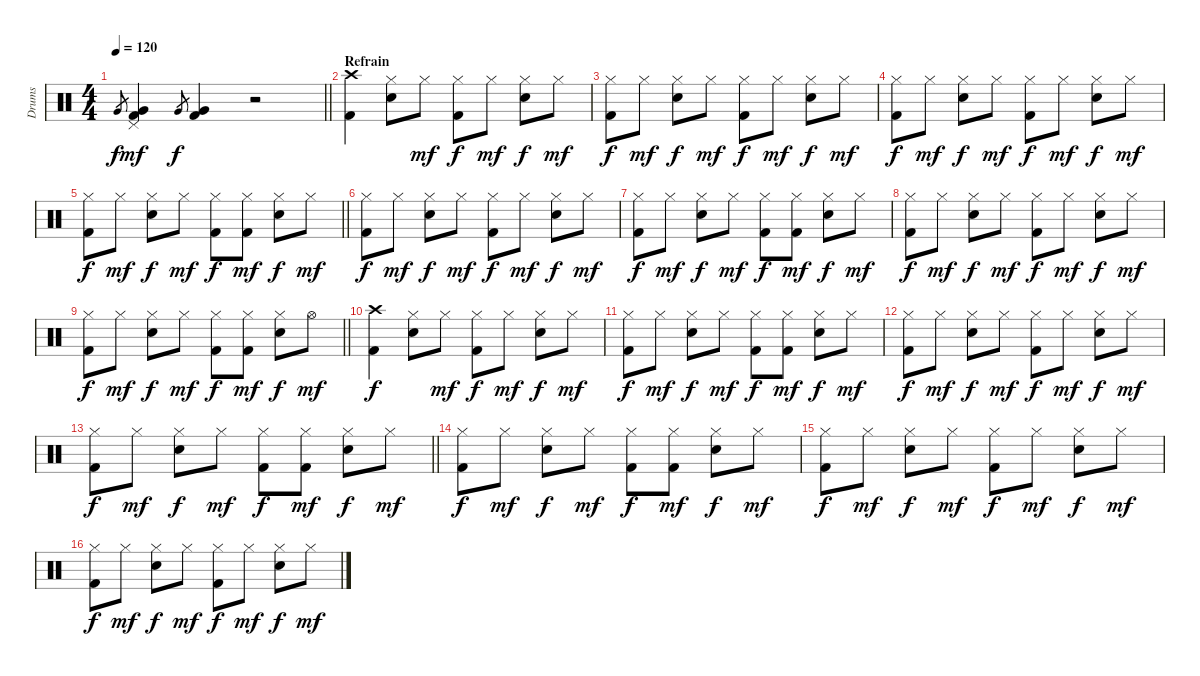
\track ("Drums" "Drums") {instrument percussion}
\staff {score}
\articulation defaults
\ts (4 4)
\tempo 120
\clef neutral
\barLineRight lightlight
\ks c "Very Low Tom (hit)".8{gr dy f}
("Pedal Hi-Hat (hit)" "Very Low Tom (hit)" "Kick (hit) 2").4{dy mf} "Very Low Tom (hit)".8{gr dy f} ("Very Low Tom (hit)" "Kick (hit) 2").4 r.2 |
\section ("" "Refrain")
("Crash high (hit)" "Kick (hit) 2").4 ("Hi-Hat (closed)" "Snare (hit) 2").8 "Hi-Hat (closed)".8{dy mf} ("Hi-Hat (closed)" "Kick (hit) 2").8{dy f} "Hi-Hat (closed)".8{dy mf} ("Hi-Hat (closed)" "Snare (hit) 2").8{dy f} "Hi-Hat (closed)".8{dy mf} |
("Hi-Hat (closed)" "Kick (hit) 2").8{dy f} "Hi-Hat (closed)".8{dy mf} ("Hi-Hat (closed)" "Snare (hit) 2").8{dy f} "Hi-Hat (closed)".8{dy mf} ("Hi-Hat (closed)" "Kick (hit) 2").8{dy f} "Hi-Hat (closed)".8{dy mf} ("Hi-Hat (closed)" "Snare (hit) 2").8{dy f} "Hi-Hat (closed)".8{dy mf} |
("Hi-Hat (closed)" "Kick (hit) 2").8{dy f} "Hi-Hat (closed)".8{dy mf} ("Hi-Hat (closed)" "Snare (hit) 2").8{dy f} "Hi-Hat (closed)".8{dy mf} ("Hi-Hat (closed)" "Kick (hit) 2").8{dy f} "Hi-Hat (closed)".8{dy mf} ("Hi-Hat (closed)" "Snare (hit) 2").8{dy f} "Hi-Hat (closed)".8{dy mf} |
\barLineRight lightlight
("Hi-Hat (closed)" "Kick (hit) 2").8{dy f} "Hi-Hat (closed)".8{dy mf} ("Hi-Hat (closed)" "Snare (hit) 2").8{dy f} "Hi-Hat (closed)".8{dy mf} ("Hi-Hat (closed)" "Kick (hit) 2").8{dy f} ("Hi-Hat (closed)" "Kick (hit) 2").8{dy mf} ("Hi-Hat (closed)" "Snare (hit) 2").8{dy f} "Hi-Hat (closed)".8{dy mf} |
("Hi-Hat (closed)" "Kick (hit) 2").8{dy f} "Hi-Hat (closed)".8{dy mf} ("Hi-Hat (closed)" "Snare (hit) 2").8{dy f} "Hi-Hat (closed)".8{dy mf} ("Hi-Hat (closed)" "Kick (hit) 2").8{dy f} "Hi-Hat (closed)".8{dy mf} ("Hi-Hat (closed)" "Snare (hit) 2").8{dy f} "Hi-Hat (closed)".8{dy mf} |
("Hi-Hat (closed)" "Kick (hit) 2").8{dy f} "Hi-Hat (closed)".8{dy mf} ("Hi-Hat (closed)" "Snare (hit) 2").8{dy f} "Hi-Hat (closed)".8{dy mf} ("Hi-Hat (closed)" "Kick (hit) 2").8{dy f} ("Hi-Hat (closed)" "Kick (hit) 2").8{dy mf} ("Hi-Hat (closed)" "Snare (hit) 2").8{dy f} "Hi-Hat (closed)".8{dy mf} |
("Hi-Hat (closed)" "Kick (hit) 2").8{dy f} "Hi-Hat (closed)".8{dy mf} ("Hi-Hat (closed)" "Snare (hit) 2").8{dy f} "Hi-Hat (closed)".8{dy mf} ("Hi-Hat (closed)" "Kick (hit) 2").8{dy f} "Hi-Hat (closed)".8{dy mf} ("Hi-Hat (closed)" "Snare (hit) 2").8{dy f} "Hi-Hat (closed)".8{dy mf} |
\barLineRight lightlight
("Hi-Hat (closed)" "Kick (hit) 2").8{dy f} "Hi-Hat (closed)".8{dy mf} ("Hi-Hat (closed)" "Snare (hit) 2").8{dy f} "Hi-Hat (closed)".8{dy mf} ("Hi-Hat (closed)" "Kick (hit) 2").8{dy f} ("Hi-Hat (closed)" "Kick (hit) 2").8{dy mf} ("Hi-Hat (closed)" "Snare (hit) 2").8{dy f} "Hi-Hat (open)".8{dy mf} |
("Crash high (hit)" "Kick (hit) 2").4{dy f} ("Hi-Hat (closed)" "Snare (hit) 2").8 "Hi-Hat (closed)".8{dy mf} ("Hi-Hat (closed)" "Kick (hit) 2").8{dy f} "Hi-Hat (closed)".8{dy mf} ("Hi-Hat (closed)" "Snare (hit) 2").8{dy f} "Hi-Hat (closed)".8{dy mf} |
("Hi-Hat (closed)" "Kick (hit) 2").8{dy f} "Hi-Hat (closed)".8{dy mf} ("Hi-Hat (closed)" "Snare (hit) 2").8{dy f} "Hi-Hat (closed)".8{dy mf} ("Hi-Hat (closed)" "Kick (hit) 2").8{dy f} ("Hi-Hat (closed)" "Kick (hit) 2").8{dy mf} ("Hi-Hat (closed)" "Snare (hit) 2").8{dy f} "Hi-Hat (closed)".8{dy mf} |
("Hi-Hat (closed)" "Kick (hit) 2").8{dy f} "Hi-Hat (closed)".8{dy mf} ("Hi-Hat (closed)" "Snare (hit) 2").8{dy f} "Hi-Hat (closed)".8{dy mf} ("Hi-Hat (closed)" "Kick (hit) 2").8{dy f} "Hi-Hat (closed)".8{dy mf} ("Hi-Hat (closed)" "Snare (hit) 2").8{dy f} "Hi-Hat (closed)".8{dy mf} |
\barLineRight lightlight
("Hi-Hat (closed)" "Kick (hit) 2").8{dy f} "Hi-Hat (closed)".8{dy mf} ("Hi-Hat (closed)" "Snare (hit) 2").8{dy f} "Hi-Hat (closed)".8{dy mf} ("Hi-Hat (closed)" "Kick (hit) 2").8{dy f} ("Hi-Hat (closed)" "Kick (hit) 2").8{dy mf} ("Hi-Hat (closed)" "Snare (hit) 2").8{dy f} "Hi-Hat (closed)".8{dy mf} |
("Hi-Hat (closed)" "Kick (hit) 2").8{dy f} "Hi-Hat (closed)".8{dy mf} ("Hi-Hat (closed)" "Snare (hit) 2").8{dy f} "Hi-Hat (closed)".8{dy mf} ("Hi-Hat (closed)" "Kick (hit) 2").8{dy f} ("Hi-Hat (closed)" "Kick (hit) 2").8{dy mf} ("Hi-Hat (closed)" "Snare (hit) 2").8{dy f} "Hi-Hat (closed)".8{dy mf} |
("Hi-Hat (closed)" "Kick (hit) 2").8{dy f} "Hi-Hat (closed)".8{dy mf} ("Hi-Hat (closed)" "Snare (hit) 2").8{dy f} "Hi-Hat (closed)".8{dy mf} ("Hi-Hat (closed)" "Kick (hit) 2").8{dy f} "Hi-Hat (closed)".8{dy mf} ("Hi-Hat (closed)" "Snare (hit) 2").8{dy f} "Hi-Hat (closed)".8{dy mf} |
("Hi-Hat (closed)" "Kick (hit) 2").8{dy f} "Hi-Hat (closed)".8{dy mf} ("Hi-Hat (closed)" "Snare (hit) 2").8{dy f} "Hi-Hat (closed)".8{dy mf} ("Hi-Hat (closed)" "Kick (hit) 2").8{dy f} "Hi-Hat (closed)".8{dy mf} ("Hi-Hat (closed)" "Snare (hit) 2").8{dy f} "Hi-Hat (closed)".8{dy mf}
